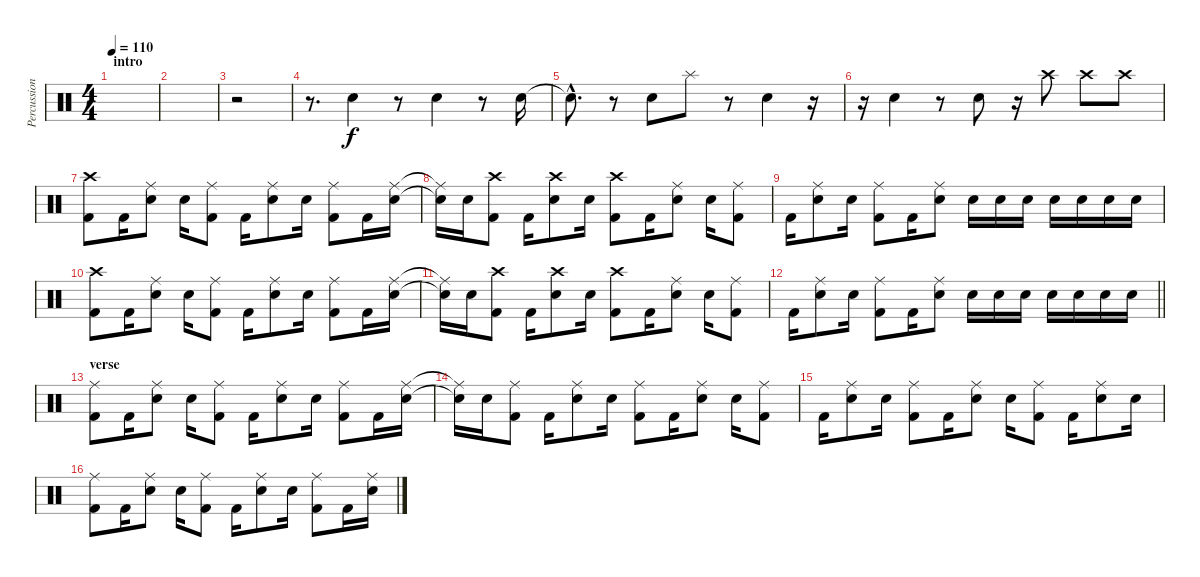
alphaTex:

\track ("Percussion" "Percussion") {instrument percussion}
\staff {score}
\articulation defaults
\ts (4 4)
\section ("" "intro")
\tempo 110
\clef neutral
\ks c
|
|
r.2 |
r.8{d} "Electric Snare (hit)".4 r.8 "Electric Snare (hit)".4 r.8 "Electric Snare (hit)".16 |
"Electric Snare (hit)"{hac t}.8{d} r.8 "Electric Snare (hit)".8 "Splash (hit)".8 r.8 "Electric Snare (hit)".4 r.16 |
r.16 "Electric Snare (hit)".4 r.8 "Electric Snare (hit)".8 r.16 "Crash high (hit)".8 "Crash high (hit)".8 "Crash high (hit)".8 |
("Kick (hit) 2" "Crash high (hit)").8 "Kick (hit) 2".16 ("Electric Snare (hit)" "Ride (middle)").8 "Electric Snare (hit)".16 ("Kick (hit) 2" "Ride (middle)").8 "Kick (hit) 2".16 ("Electric Snare (hit)" "Ride (middle)").8 "Electric Snare (hit)".16 ("Kick (hit) 2" "Ride (middle)").8 "Kick (hit) 2".16 ("Electric Snare (hit)" "Ride (middle)").16 |
("Electric Snare (hit)"{t} "Ride (middle)"{t}).16 "Electric Snare (hit)".16 ("Kick (hit) 2" "Crash high (hit)").8 "Kick (hit) 2".16 ("Electric Snare (hit)" "Crash high (hit)").8 "Electric Snare (hit)".16 ("Kick (hit) 2" "Crash high (hit)").8 "Kick (hit) 2".16 ("Electric Snare (hit)" "Ride (middle)").8 "Electric Snare (hit)".16 ("Kick (hit) 2" "Ride (middle)").8 |
"Kick (hit) 2".16 ("Electric Snare (hit)" "Ride (middle)").8 "Electric Snare (hit)".16 ("Kick (hit) 2" "Ride (middle)").8 "Kick (hit) 2".16 ("Electric Snare (hit)" "Ride (middle)").8 "Electric Snare (hit)".16 "Electric Snare (hit)".16 "Electric Snare (hit)".16 "Electric Snare (hit)".16 "Electric Snare (hit)".16 "Electric Snare (hit)".16 "Electric Snare (hit)".16 |
("Kick (hit) 2" "Crash high (hit)").8 "Kick (hit) 2".16 ("Electric Snare (hit)" "Ride (middle)").8 "Electric Snare (hit)".16 ("Kick (hit) 2" "Ride (middle)").8 "Kick (hit) 2".16 ("Electric Snare (hit)" "Ride (middle)").8 "Electric Snare (hit)".16 ("Kick (hit) 2" "Ride (middle)").8 "Kick (hit) 2".16 ("Electric Snare (hit)" "Ride (middle)").16 |
("Electric Snare (hit)"{t} "Ride (middle)"{t}).16 "Electric Snare (hit)".16 ("Kick (hit) 2" "Crash high (hit)").8 "Kick (hit) 2".16 ("Electric Snare (hit)" "Crash high (hit)").8 "Electric Snare (hit)".16 ("Kick (hit) 2" "Crash high (hit)").8 "Kick (hit) 2".16 ("Electric Snare (hit)" "Ride (middle)").8 "Electric Snare (hit)".16 ("Kick (hit) 2" "Ride (middle)").8 |
\barLineRight lightlight "Kick (hit) 2".16
("Electric Snare (hit)" "Ride (middle)").8 "Electric Snare (hit)".16 ("Kick (hit) 2" "Ride (middle)").8 "Kick (hit) 2".16 ("Electric Snare (hit)" "Ride (middle)").8 "Electric Snare (hit)".16 "Electric Snare (hit)".16 "Electric Snare (hit)".16 "Electric Snare (hit)".16 "Electric Snare (hit)".16 "Electric Snare (hit)".16 "Electric Snare (hit)".16 |
\section ("" "verse")
("Kick (hit) 2" "Ride (middle)").8 "Kick (hit) 2".16 ("Electric Snare (hit)" "Ride (middle)").8 "Electric Snare (hit)".16 ("Kick (hit) 2" "Ride (middle)").8 "Kick (hit) 2".16 ("Electric Snare (hit)" "Ride (middle)").8 "Electric Snare (hit)".16 ("Kick (hit) 2" "Ride (middle)").8 "Kick (hit) 2".16 ("Electric Snare (hit)" "Ride (middle)").16 |
("Electric Snare (hit)"{t} "Ride (middle)"{t}).16 "Electric Snare (hit)".16 ("Kick (hit) 2" "Ride (middle)").8 "Kick (hit) 2".16 ("Electric Snare (hit)" "Ride (middle)").8 "Electric Snare (hit)".16 ("Kick (hit) 2" "Ride (middle)").8 "Kick (hit) 2".16 ("Electric Snare (hit)" "Ride (middle)").8 "Electric Snare (hit)".16 ("Kick (hit) 2" "Ride (middle)").8 |
"Kick (hit) 2".16 ("Electric Snare (hit)" "Ride (middle)").8 "Electric Snare (hit)".16 ("Kick (hit) 2" "Ride (middle)").8 "Kick (hit) 2".16 ("Electric Snare (hit)" "Ride (middle)").8 "Electric Snare (hit)".16 ("Kick (hit) 2" "Ride (middle)").8 "Kick (hit) 2".16 ("Electric Snare (hit)" "Ride (middle)").8 "Electric Snare (hit)".16 |
("Kick (hit) 2" "Ride (middle)").8 "Kick (hit) 2".16 ("Electric Snare (hit)" "Ride (middle)").8 "Electric Snare (hit)".16 ("Kick (hit) 2" "Ride (middle)").8 "Kick (hit) 2".16 ("Electric Snare (hit)" "Ride (middle)").8 "Electric Snare (hit)".16 ("Kick (hit) 2" "Ride (middle)").8 "Kick (hit) 2".16 ("Electric Snare (hit)" "Ride (middle)").16
